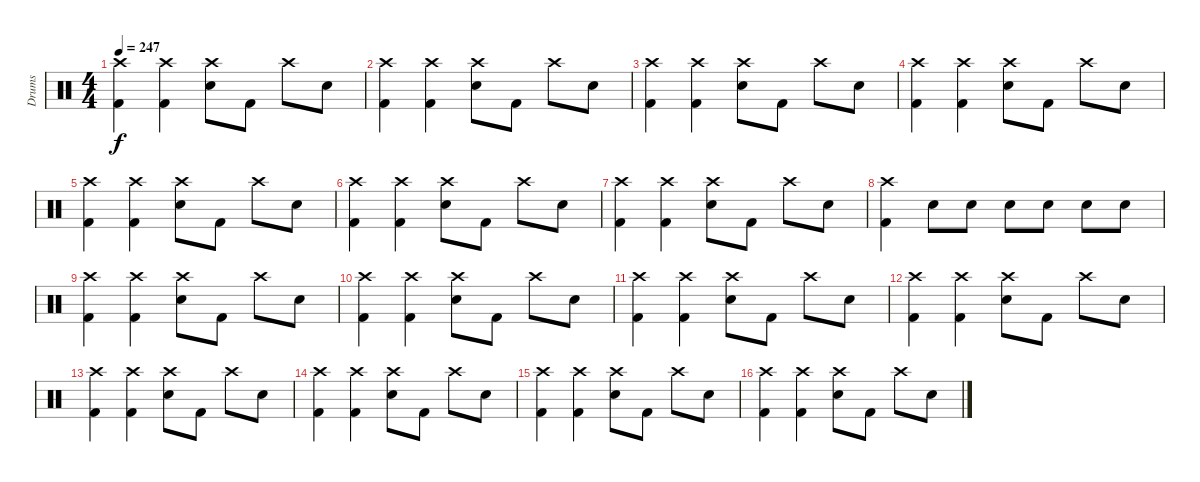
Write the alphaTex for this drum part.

\track ("Drums" "Drums") {instrument percussion}
\staff {score}
\articulation defaults
\ts (4 4)
\tempo 247
\clef neutral
\ks c
("Crash high (hit)" "Kick (hit) 2").4{dy f} ("Crash high (hit)" "Kick (hit) 2").4 ("Crash high (hit)" "Electric Snare (hit)").8 "Kick (hit) 2".8 "Crash high (hit)".8 "Electric Snare (hit)".8 |
("Crash high (hit)" "Kick (hit) 2").4 ("Crash high (hit)" "Kick (hit) 2").4 ("Crash high (hit)" "Electric Snare (hit)").8 "Kick (hit) 2".8 "Crash high (hit)".8 "Electric Snare (hit)".8 |
("Crash high (hit)" "Kick (hit) 2").4 ("Crash high (hit)" "Kick (hit) 2").4 ("Crash high (hit)" "Electric Snare (hit)").8 "Kick (hit) 2".8 "Crash high (hit)".8 "Electric Snare (hit)".8 |
("Crash high (hit)" "Kick (hit) 2").4 ("Crash high (hit)" "Kick (hit) 2").4 ("Crash high (hit)" "Electric Snare (hit)").8 "Kick (hit) 2".8 "Crash high (hit)".8 "Electric Snare (hit)".8 |
("Crash high (hit)" "Kick (hit) 2").4 ("Crash high (hit)" "Kick (hit) 2").4 ("Crash high (hit)" "Electric Snare (hit)").8 "Kick (hit) 2".8 "Crash high (hit)".8 "Electric Snare (hit)".8 |
("Crash high (hit)" "Kick (hit) 2").4 ("Crash high (hit)" "Kick (hit) 2").4 ("Crash high (hit)" "Electric Snare (hit)").8 "Kick (hit) 2".8 "Crash high (hit)".8 "Electric Snare (hit)".8 |
("Crash high (hit)" "Kick (hit) 2").4 ("Crash high (hit)" "Kick (hit) 2").4 ("Crash high (hit)" "Electric Snare (hit)").8 "Kick (hit) 2".8 "Crash high (hit)".8 "Electric Snare (hit)".8 |
("Crash high (hit)" "Kick (hit) 2").4 "Electric Snare (hit)".8 "Electric Snare (hit)".8 "Electric Snare (hit)".8 "Electric Snare (hit)".8 "Electric Snare (hit)".8 "Electric Snare (hit)".8 |
("Crash high (hit)" "Kick (hit) 2").4 ("Crash high (hit)" "Kick (hit) 2").4 ("Crash high (hit)" "Electric Snare (hit)").8 "Kick (hit) 2".8 "Crash high (hit)".8 "Electric Snare (hit)".8 |
("Crash high (hit)" "Kick (hit) 2").4 ("Crash high (hit)" "Kick (hit) 2").4 ("Crash high (hit)" "Electric Snare (hit)").8 "Kick (hit) 2".8 "Crash high (hit)".8 "Electric Snare (hit)".8 |
("Crash high (hit)" "Kick (hit) 2").4 ("Crash high (hit)" "Kick (hit) 2").4 ("Crash high (hit)" "Electric Snare (hit)").8 "Kick (hit) 2".8 "Crash high (hit)".8 "Electric Snare (hit)".8 |
("Crash high (hit)" "Kick (hit) 2").4 ("Crash high (hit)" "Kick (hit) 2").4 ("Crash high (hit)" "Electric Snare (hit)").8 "Kick (hit) 2".8 "Crash high (hit)".8 "Electric Snare (hit)".8 |
("Crash high (hit)" "Kick (hit) 2").4 ("Crash high (hit)" "Kick (hit) 2").4 ("Crash high (hit)" "Electric Snare (hit)").8 "Kick (hit) 2".8 "Crash high (hit)".8 "Electric Snare (hit)".8 |
("Crash high (hit)" "Kick (hit) 2").4 ("Crash high (hit)" "Kick (hit) 2").4 ("Crash high (hit)" "Electric Snare (hit)").8 "Kick (hit) 2".8 "Crash high (hit)".8 "Electric Snare (hit)".8 |
("Crash high (hit)" "Kick (hit) 2").4 ("Crash high (hit)" "Kick (hit) 2").4 ("Crash high (hit)" "Electric Snare (hit)").8 "Kick (hit) 2".8 "Crash high (hit)".8 "Electric Snare (hit)".8 |
("Crash high (hit)" "Kick (hit) 2").4 ("Crash high (hit)" "Kick (hit) 2").4 ("Crash high (hit)" "Electric Snare (hit)").8 "Kick (hit) 2".8 "Crash high (hit)".8 "Electric Snare (hit)".8
